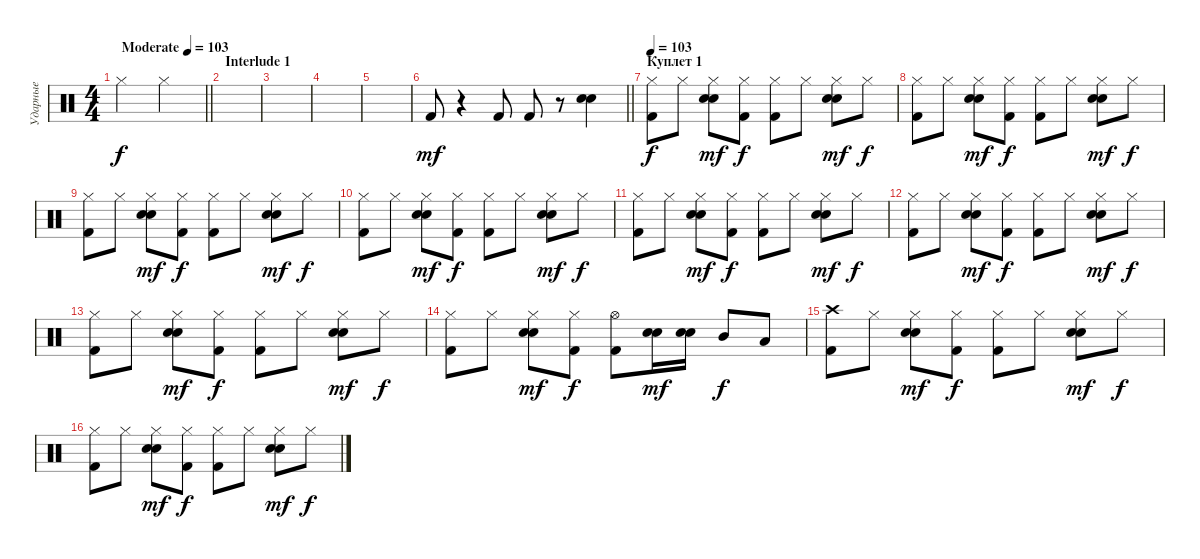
\track ("Ударные" "Ударные") {instrument percussion}
\staff {score}
\articulation defaults
\ts (4 4)
\tempo (103 "Moderate")
\clef neutral
\barLineRight lightlight
\ks c "Hi-Hat (closed)".2{dy f} "Hi-Hat (closed)".2
|
\section ("" "Interlude 1")
|
|
|
|
\barLineRight lightlight "Kick (hit) 2".8{dy mf}
r.4 "Kick (hit) 2".8 "Kick (hit) 2".8 r.8 ("Electric Snare (hit)" "Snare (hit) 2").4 |
\section ("" "Куплет 1")
\tempo 103
("Hi-Hat (closed)" "Kick (hit) 2").8{dy f} "Hi-Hat (closed)".8 ("Hi-Hat (closed)" "Electric Snare (hit)" "Snare (hit) 2").8{dy mf} ("Hi-Hat (closed)" "Kick (hit) 2").8{dy f} ("Hi-Hat (closed)" "Kick (hit) 2").8 "Hi-Hat (closed)".8 ("Hi-Hat (closed)" "Electric Snare (hit)" "Snare (hit) 2").8{dy mf} "Hi-Hat (closed)".8{dy f} |
("Hi-Hat (closed)" "Kick (hit) 2").8 "Hi-Hat (closed)".8 ("Hi-Hat (closed)" "Electric Snare (hit)" "Snare (hit) 2").8{dy mf} ("Hi-Hat (closed)" "Kick (hit) 2").8{dy f} ("Hi-Hat (closed)" "Kick (hit) 2").8 "Hi-Hat (closed)".8 ("Hi-Hat (closed)" "Electric Snare (hit)" "Snare (hit) 2").8{dy mf} "Hi-Hat (closed)".8{dy f} |
("Hi-Hat (closed)" "Kick (hit) 2").8 "Hi-Hat (closed)".8 ("Hi-Hat (closed)" "Electric Snare (hit)" "Snare (hit) 2").8{dy mf} ("Hi-Hat (closed)" "Kick (hit) 2").8{dy f} ("Hi-Hat (closed)" "Kick (hit) 2").8 "Hi-Hat (closed)".8 ("Hi-Hat (closed)" "Electric Snare (hit)" "Snare (hit) 2").8{dy mf} "Hi-Hat (closed)".8{dy f} |
("Hi-Hat (closed)" "Kick (hit) 2").8 "Hi-Hat (closed)".8 ("Hi-Hat (closed)" "Electric Snare (hit)" "Snare (hit) 2").8{dy mf} ("Hi-Hat (closed)" "Kick (hit) 2").8{dy f} ("Hi-Hat (closed)" "Kick (hit) 2").8 "Hi-Hat (closed)".8 ("Hi-Hat (closed)" "Electric Snare (hit)" "Snare (hit) 2").8{dy mf} "Hi-Hat (closed)".8{dy f} |
("Hi-Hat (closed)" "Kick (hit) 2").8 "Hi-Hat (closed)".8 ("Hi-Hat (closed)" "Electric Snare (hit)" "Snare (hit) 2").8{dy mf} ("Hi-Hat (closed)" "Kick (hit) 2").8{dy f} ("Hi-Hat (closed)" "Kick (hit) 2").8 "Hi-Hat (closed)".8 ("Hi-Hat (closed)" "Electric Snare (hit)" "Snare (hit) 2").8{dy mf} "Hi-Hat (closed)".8{dy f} |
("Hi-Hat (closed)" "Kick (hit) 2").8 "Hi-Hat (closed)".8 ("Hi-Hat (closed)" "Electric Snare (hit)" "Snare (hit) 2").8{dy mf} ("Hi-Hat (closed)" "Kick (hit) 2").8{dy f} ("Hi-Hat (closed)" "Kick (hit) 2").8 "Hi-Hat (closed)".8 ("Hi-Hat (closed)" "Electric Snare (hit)" "Snare (hit) 2").8{dy mf} "Hi-Hat (closed)".8{dy f} |
("Hi-Hat (closed)" "Kick (hit) 2").8 "Hi-Hat (closed)".8 ("Hi-Hat (closed)" "Electric Snare (hit)" "Snare (hit) 2").8{dy mf} ("Hi-Hat (closed)" "Kick (hit) 2").8{dy f} ("Hi-Hat (closed)" "Kick (hit) 2").8 "Hi-Hat (closed)".8 ("Hi-Hat (closed)" "Electric Snare (hit)" "Snare (hit) 2").8{dy mf} "Hi-Hat (closed)".8{dy f} |
("Hi-Hat (closed)" "Kick (hit) 2").8 "Hi-Hat (closed)".8 ("Hi-Hat (closed)" "Electric Snare (hit)" "Snare (hit) 2").8{dy mf} ("Hi-Hat (closed)" "Kick (hit) 2").8{dy f} ("Hi-Hat (open)" "Kick (hit) 2").8 ("Electric Snare (hit)" "Snare (hit) 2").16{dy mf} ("Electric Snare (hit)" "Snare (hit) 2").16 "Mid Tom (hit)".8{dy f} "Low Tom (hit)".8 |
("Crash high (hit)" "Kick (hit) 2").8 "Hi-Hat (closed)".8 ("Hi-Hat (closed)" "Electric Snare (hit)" "Snare (hit) 2").8{dy mf} ("Hi-Hat (closed)" "Kick (hit) 2").8{dy f} ("Hi-Hat (closed)" "Kick (hit) 2").8 "Hi-Hat (closed)".8 ("Hi-Hat (closed)" "Electric Snare (hit)" "Snare (hit) 2").8{dy mf} "Hi-Hat (closed)".8{dy f} |
("Hi-Hat (closed)" "Kick (hit) 2").8 "Hi-Hat (closed)".8 ("Hi-Hat (closed)" "Electric Snare (hit)" "Snare (hit) 2").8{dy mf} ("Hi-Hat (closed)" "Kick (hit) 2").8{dy f} ("Hi-Hat (closed)" "Kick (hit) 2").8 "Hi-Hat (closed)".8 ("Hi-Hat (closed)" "Electric Snare (hit)" "Snare (hit) 2").8{dy mf} "Hi-Hat (closed)".8{dy f}
